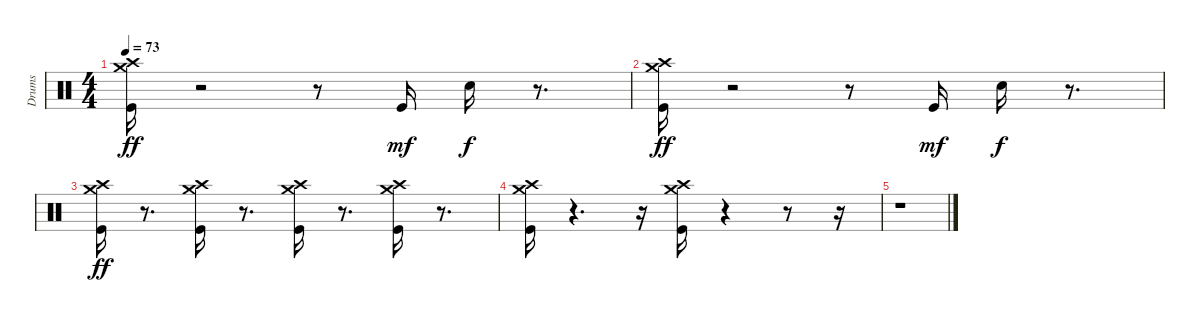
\track ("Drums" "Drums") {instrument percussion}
\staff {score}
\articulation defaults
\ts (4 4)
\tempo 73
\clef neutral
\ks c
("Crash medium (hit)" "Crash high (hit)" "Kick (hit)").16{dy ff} r.2 r.8 "Kick (hit)".16{dy mf} "Snare (hit) 2".16{dy f} r.8{d} |
("Crash high (hit)" "Crash medium (hit)" "Kick (hit)").16{dy ff} r.2 r.8 "Kick (hit)".16{dy mf} "Snare (hit) 2".16{dy f} r.8{d} |
("Crash high (hit)" "Crash medium (hit)" "Kick (hit)").16{dy ff} r.8{d} ("Crash medium (hit)" "Crash high (hit)" "Kick (hit)").16 r.8{d} ("Crash medium (hit)" "Crash high (hit)" "Kick (hit)").16 r.8{d} ("Crash medium (hit)" "Crash high (hit)" "Kick (hit)").16 r.8{d} |
("Crash medium (hit)" "Crash high (hit)" "Kick (hit)").16 r.4{d} r.16 ("Crash medium (hit)" "Crash high (hit)" "Kick (hit)").16 r.4 r.8 r.16 |
r.1
